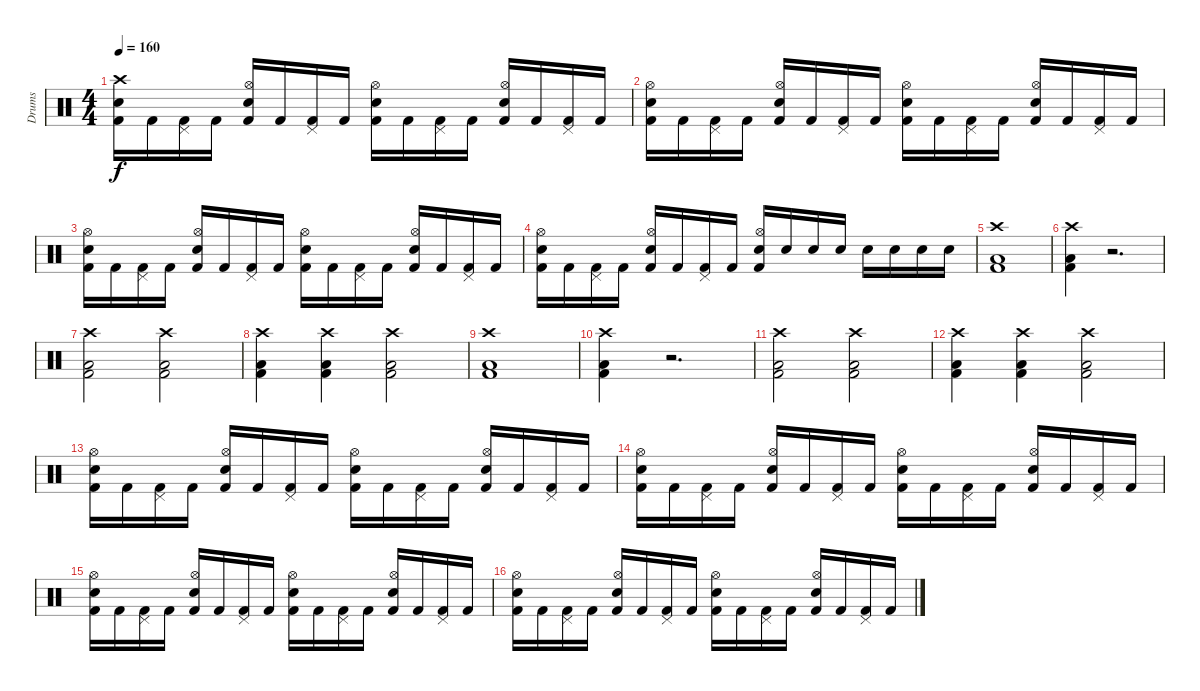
\track ("Drums" "Drums") {instrument percussion}
\staff {score}
\articulation defaults
\ts (4 4)
\tempo 160
\clef neutral
\ks c
("Crash high (hit)" "Electric Snare (hit)" "Kick (hit) 2").16{dy f} "Kick (hit) 2".16 ("Pedal Hi-Hat (hit)" "Kick (hit) 2").16 "Kick (hit) 2".16 ("Hi-Hat (open)" "Snare (hit) 2" "Kick (hit) 2").16 "Kick (hit) 2".16 ("Pedal Hi-Hat (hit)" "Kick (hit) 2").16 "Kick (hit) 2".16 ("Hi-Hat (open)" "Electric Snare (hit)" "Kick (hit) 2").16 "Kick (hit) 2".16 ("Pedal Hi-Hat (hit)" "Kick (hit) 2").16 "Kick (hit) 2".16 ("Hi-Hat (open)" "Snare (hit) 2" "Kick (hit) 2").16 "Kick (hit) 2".16 ("Pedal Hi-Hat (hit)" "Kick (hit) 2").16 "Kick (hit) 2".16 |
("Hi-Hat (open)" "Electric Snare (hit)" "Kick (hit) 2").16 "Kick (hit) 2".16 ("Pedal Hi-Hat (hit)" "Kick (hit) 2").16 "Kick (hit) 2".16 ("Hi-Hat (open)" "Snare (hit) 2" "Kick (hit) 2").16 "Kick (hit) 2".16 ("Pedal Hi-Hat (hit)" "Kick (hit) 2").16 "Kick (hit) 2".16 ("Hi-Hat (open)" "Electric Snare (hit)" "Kick (hit) 2").16 "Kick (hit) 2".16 ("Pedal Hi-Hat (hit)" "Kick (hit) 2").16 "Kick (hit) 2".16 ("Hi-Hat (open)" "Snare (hit) 2" "Kick (hit) 2").16 "Kick (hit) 2".16 ("Pedal Hi-Hat (hit)" "Kick (hit) 2").16 "Kick (hit) 2".16 |
("Hi-Hat (open)" "Electric Snare (hit)" "Kick (hit) 2").16 "Kick (hit) 2".16 ("Pedal Hi-Hat (hit)" "Kick (hit) 2").16 "Kick (hit) 2".16 ("Hi-Hat (open)" "Snare (hit) 2" "Kick (hit) 2").16 "Kick (hit) 2".16 ("Pedal Hi-Hat (hit)" "Kick (hit) 2").16 "Kick (hit) 2".16 ("Hi-Hat (open)" "Electric Snare (hit)" "Kick (hit) 2").16 "Kick (hit) 2".16 ("Pedal Hi-Hat (hit)" "Kick (hit) 2").16 "Kick (hit) 2".16 ("Hi-Hat (open)" "Snare (hit) 2" "Kick (hit) 2").16 "Kick (hit) 2".16 ("Pedal Hi-Hat (hit)" "Kick (hit) 2").16 "Kick (hit) 2".16 |
("Hi-Hat (open)" "Electric Snare (hit)" "Kick (hit) 2").16 "Kick (hit) 2".16 ("Pedal Hi-Hat (hit)" "Kick (hit) 2").16 "Kick (hit) 2".16 ("Hi-Hat (open)" "Snare (hit) 2" "Kick (hit) 2").16 "Kick (hit) 2".16 ("Pedal Hi-Hat (hit)" "Kick (hit) 2").16 "Kick (hit) 2".16 ("Hi-Hat (open)" "Snare (hit) 2" "Kick (hit) 2").16 "Snare (hit) 2".16 "Snare (hit) 2".16 "Snare (hit) 2".16 "Snare (hit) 2".16 "Snare (hit) 2".16 "Snare (hit) 2".16 "Snare (hit) 2".16 |
("Crash high (hit)" "Low Floor Tom (hit)" "Kick (hit) 2").1 |
("Crash high (hit)" "Low Floor Tom (hit)" "Kick (hit) 2").4 r.2{d} |
("Crash high (hit)" "Low Floor Tom (hit)" "Kick (hit) 2").2 ("Crash high (hit)" "Low Floor Tom (hit)" "Kick (hit) 2").2 |
("Crash high (hit)" "Low Floor Tom (hit)" "Kick (hit) 2").4 ("Crash high (hit)" "Low Floor Tom (hit)" "Kick (hit) 2").4 ("Crash high (hit)" "Low Floor Tom (hit)" "Kick (hit) 2").2 |
("Crash high (hit)" "Low Floor Tom (hit)" "Kick (hit) 2").1 |
("Crash high (hit)" "Low Floor Tom (hit)" "Kick (hit) 2").4 r.2{d} |
("Crash high (hit)" "Low Floor Tom (hit)" "Kick (hit) 2").2 ("Crash high (hit)" "Low Floor Tom (hit)" "Kick (hit) 2").2 |
("Crash high (hit)" "Low Floor Tom (hit)" "Kick (hit) 2").4 ("Crash high (hit)" "Low Floor Tom (hit)" "Kick (hit) 2").4 ("Crash high (hit)" "Low Floor Tom (hit)" "Kick (hit) 2").2 |
("Hi-Hat (open)" "Electric Snare (hit)" "Kick (hit) 2").16 "Kick (hit) 2".16 ("Pedal Hi-Hat (hit)" "Kick (hit) 2").16 "Kick (hit) 2".16 ("Hi-Hat (open)" "Snare (hit) 2" "Kick (hit) 2").16 "Kick (hit) 2".16 ("Pedal Hi-Hat (hit)" "Kick (hit) 2").16 "Kick (hit) 2".16 ("Hi-Hat (open)" "Electric Snare (hit)" "Kick (hit) 2").16 "Kick (hit) 2".16 ("Pedal Hi-Hat (hit)" "Kick (hit) 2").16 "Kick (hit) 2".16 ("Hi-Hat (open)" "Snare (hit) 2" "Kick (hit) 2").16 "Kick (hit) 2".16 ("Pedal Hi-Hat (hit)" "Kick (hit) 2").16 "Kick (hit) 2".16 |
("Hi-Hat (open)" "Electric Snare (hit)" "Kick (hit) 2").16 "Kick (hit) 2".16 ("Pedal Hi-Hat (hit)" "Kick (hit) 2").16 "Kick (hit) 2".16 ("Hi-Hat (open)" "Snare (hit) 2" "Kick (hit) 2").16 "Kick (hit) 2".16 ("Pedal Hi-Hat (hit)" "Kick (hit) 2").16 "Kick (hit) 2".16 ("Hi-Hat (open)" "Electric Snare (hit)" "Kick (hit) 2").16 "Kick (hit) 2".16 ("Pedal Hi-Hat (hit)" "Kick (hit) 2").16 "Kick (hit) 2".16 ("Hi-Hat (open)" "Snare (hit) 2" "Kick (hit) 2").16 "Kick (hit) 2".16 ("Pedal Hi-Hat (hit)" "Kick (hit) 2").16 "Kick (hit) 2".16 |
("Hi-Hat (open)" "Electric Snare (hit)" "Kick (hit) 2").16 "Kick (hit) 2".16 ("Pedal Hi-Hat (hit)" "Kick (hit) 2").16 "Kick (hit) 2".16 ("Hi-Hat (open)" "Snare (hit) 2" "Kick (hit) 2").16 "Kick (hit) 2".16 ("Pedal Hi-Hat (hit)" "Kick (hit) 2").16 "Kick (hit) 2".16 ("Hi-Hat (open)" "Electric Snare (hit)" "Kick (hit) 2").16 "Kick (hit) 2".16 ("Pedal Hi-Hat (hit)" "Kick (hit) 2").16 "Kick (hit) 2".16 ("Hi-Hat (open)" "Snare (hit) 2" "Kick (hit) 2").16 "Kick (hit) 2".16 ("Pedal Hi-Hat (hit)" "Kick (hit) 2").16 "Kick (hit) 2".16 |
("Hi-Hat (open)" "Electric Snare (hit)" "Kick (hit) 2").16 "Kick (hit) 2".16 ("Pedal Hi-Hat (hit)" "Kick (hit) 2").16 "Kick (hit) 2".16 ("Hi-Hat (open)" "Snare (hit) 2" "Kick (hit) 2").16 "Kick (hit) 2".16 ("Pedal Hi-Hat (hit)" "Kick (hit) 2").16 "Kick (hit) 2".16 ("Hi-Hat (open)" "Electric Snare (hit)" "Kick (hit) 2").16 "Kick (hit) 2".16 ("Pedal Hi-Hat (hit)" "Kick (hit) 2").16 "Kick (hit) 2".16 ("Hi-Hat (open)" "Snare (hit) 2" "Kick (hit) 2").16 "Kick (hit) 2".16 ("Pedal Hi-Hat (hit)" "Kick (hit) 2").16 "Kick (hit) 2".16
